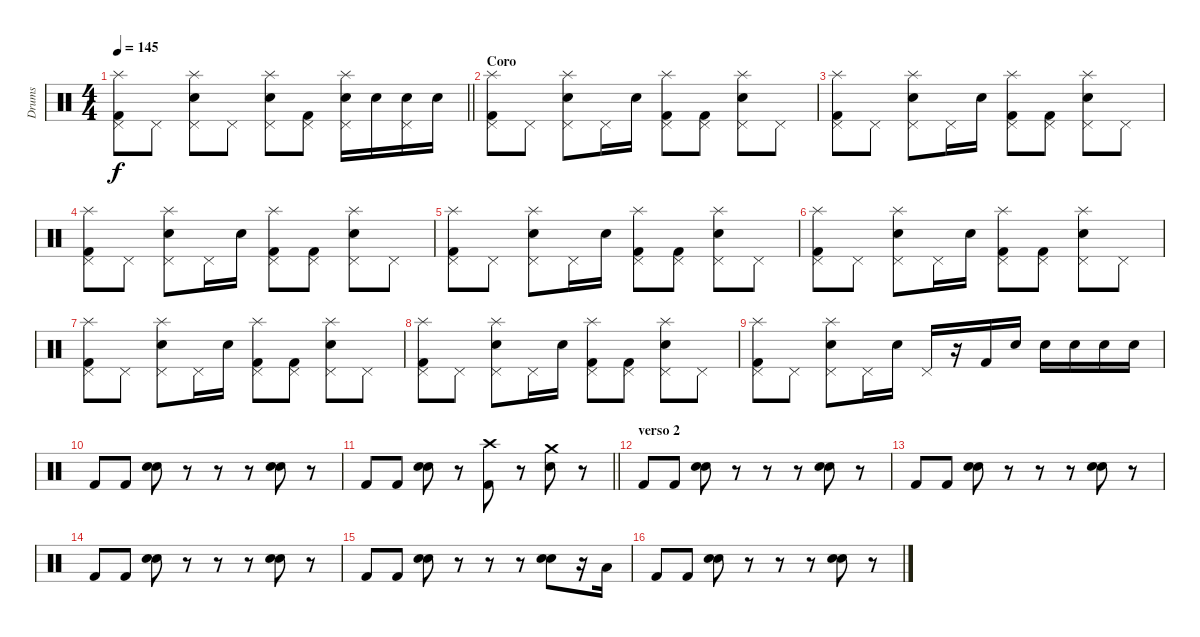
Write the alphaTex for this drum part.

\track ("Drums" "Drums") {instrument percussion}
\staff {score}
\articulation defaults
\ts (4 4)
\tempo 145
\clef neutral
\barLineRight lightlight
\ks c
("Splash (hit)" "Pedal Hi-Hat (hit)" "Kick (hit) 2").8{dy f} "Pedal Hi-Hat (hit)".8 ("Splash (hit)" "Pedal Hi-Hat (hit)" "Electric Snare (hit)").8 "Pedal Hi-Hat (hit)".8 ("Splash (hit)" "Pedal Hi-Hat (hit)" "Electric Snare (hit)").8 ("Pedal Hi-Hat (hit)" "Kick (hit) 2").8 ("Splash (hit)" "Pedal Hi-Hat (hit)" "Electric Snare (hit)").16 "Electric Snare (hit)".16 ("Pedal Hi-Hat (hit)" "Electric Snare (hit)").16 "Electric Snare (hit)".16 |
\section ("" "Coro")
("Pedal Hi-Hat (hit)" "Splash (hit)" "Kick (hit) 2").8 "Pedal Hi-Hat (hit)".8 ("Pedal Hi-Hat (hit)" "Splash (hit)" "Electric Snare (hit)").8 "Pedal Hi-Hat (hit)".16 "Electric Snare (hit)".16 ("Pedal Hi-Hat (hit)" "Splash (hit)" "Kick (hit) 2").8 ("Pedal Hi-Hat (hit)" "Kick (hit) 2").8 ("Pedal Hi-Hat (hit)" "Splash (hit)" "Electric Snare (hit)").8 "Pedal Hi-Hat (hit)".8 |
("Pedal Hi-Hat (hit)" "Splash (hit)" "Kick (hit) 2").8 "Pedal Hi-Hat (hit)".8 ("Pedal Hi-Hat (hit)" "Splash (hit)" "Electric Snare (hit)").8 "Pedal Hi-Hat (hit)".16 "Electric Snare (hit)".16 ("Pedal Hi-Hat (hit)" "Splash (hit)" "Kick (hit) 2").8 ("Pedal Hi-Hat (hit)" "Kick (hit) 2").8 ("Pedal Hi-Hat (hit)" "Splash (hit)" "Electric Snare (hit)").8 "Pedal Hi-Hat (hit)".8 |
("Pedal Hi-Hat (hit)" "Splash (hit)" "Kick (hit) 2").8 "Pedal Hi-Hat (hit)".8 ("Pedal Hi-Hat (hit)" "Splash (hit)" "Electric Snare (hit)").8 "Pedal Hi-Hat (hit)".16 "Electric Snare (hit)".16 ("Pedal Hi-Hat (hit)" "Splash (hit)" "Kick (hit) 2").8 ("Pedal Hi-Hat (hit)" "Kick (hit) 2").8 ("Pedal Hi-Hat (hit)" "Splash (hit)" "Electric Snare (hit)").8 "Pedal Hi-Hat (hit)".8 |
("Pedal Hi-Hat (hit)" "Splash (hit)" "Kick (hit) 2").8 "Pedal Hi-Hat (hit)".8 ("Pedal Hi-Hat (hit)" "Splash (hit)" "Electric Snare (hit)").8 "Pedal Hi-Hat (hit)".16 "Electric Snare (hit)".16 ("Pedal Hi-Hat (hit)" "Splash (hit)" "Kick (hit) 2").8 ("Pedal Hi-Hat (hit)" "Kick (hit) 2").8 ("Pedal Hi-Hat (hit)" "Splash (hit)" "Electric Snare (hit)").8 "Pedal Hi-Hat (hit)".8 |
("Pedal Hi-Hat (hit)" "Splash (hit)" "Kick (hit) 2").8 "Pedal Hi-Hat (hit)".8 ("Pedal Hi-Hat (hit)" "Splash (hit)" "Electric Snare (hit)").8 "Pedal Hi-Hat (hit)".16 "Electric Snare (hit)".16 ("Pedal Hi-Hat (hit)" "Splash (hit)" "Kick (hit) 2").8 ("Pedal Hi-Hat (hit)" "Kick (hit) 2").8 ("Pedal Hi-Hat (hit)" "Splash (hit)" "Electric Snare (hit)").8 "Pedal Hi-Hat (hit)".8 |
("Pedal Hi-Hat (hit)" "Splash (hit)" "Kick (hit) 2").8 "Pedal Hi-Hat (hit)".8 ("Pedal Hi-Hat (hit)" "Splash (hit)" "Electric Snare (hit)").8 "Pedal Hi-Hat (hit)".16 "Electric Snare (hit)".16 ("Pedal Hi-Hat (hit)" "Splash (hit)" "Kick (hit) 2").8 ("Pedal Hi-Hat (hit)" "Kick (hit) 2").8 ("Pedal Hi-Hat (hit)" "Splash (hit)" "Electric Snare (hit)").8 "Pedal Hi-Hat (hit)".8 |
("Pedal Hi-Hat (hit)" "Splash (hit)" "Kick (hit) 2").8 "Pedal Hi-Hat (hit)".8 ("Pedal Hi-Hat (hit)" "Splash (hit)" "Electric Snare (hit)").8 "Pedal Hi-Hat (hit)".16 "Electric Snare (hit)".16 ("Pedal Hi-Hat (hit)" "Splash (hit)" "Kick (hit) 2").8 ("Pedal Hi-Hat (hit)" "Kick (hit) 2").8 ("Pedal Hi-Hat (hit)" "Splash (hit)" "Electric Snare (hit)").8 "Pedal Hi-Hat (hit)".8 |
("Pedal Hi-Hat (hit)" "Splash (hit)" "Kick (hit) 2").8 "Pedal Hi-Hat (hit)".8 ("Pedal Hi-Hat (hit)" "Splash (hit)" "Electric Snare (hit)").8 "Pedal Hi-Hat (hit)".16 "Electric Snare (hit)".16 "Pedal Hi-Hat (hit)".16 r.16 "Kick (hit) 2".16 "Electric Snare (hit)".16 "Electric Snare (hit)".16 "Electric Snare (hit)".16 "Electric Snare (hit)".16 "Electric Snare (hit)".16 |
"Kick (hit) 2".8 "Kick (hit) 2".8 ("Electric Snare (hit)" "Electric Snare (hit)").8{bd 60} r.8 r.8 r.8 ("Electric Snare (hit)" "Electric Snare (hit)").8{bd 60} r.8 |
\barLineRight lightlight "Kick (hit) 2".8 "Kick (hit) 2".8
("Electric Snare (hit)" "Electric Snare (hit)").8{bd 60} r.8 ("Crash high (hit)" "Kick (hit) 2").8 r.8 ("Crash medium (hit)" "Electric Snare (hit)").8 r.8 |
\section ("" "verso 2")
"Kick (hit) 2".8 "Kick (hit) 2".8 ("Electric Snare (hit)" "Electric Snare (hit)").8{bd 60} r.8 r.8 r.8 ("Electric Snare (hit)" "Electric Snare (hit)").8{bd 60} r.8 |
"Kick (hit) 2".8 "Kick (hit) 2".8 ("Electric Snare (hit)" "Electric Snare (hit)").8{bd 60} r.8 r.8 r.8 ("Electric Snare (hit)" "Electric Snare (hit)").8{bd 60} r.8 |
"Kick (hit) 2".8 "Kick (hit) 2".8 ("Electric Snare (hit)" "Electric Snare (hit)").8{bd 60} r.8 r.8 r.8 ("Electric Snare (hit)" "Electric Snare (hit)").8{bd 60} r.8 |
"Kick (hit) 2".8 "Kick (hit) 2".8 ("Electric Snare (hit)" "Electric Snare (hit)").8{bd 60} r.8 r.8 r.8 ("Electric Snare (hit)" "Electric Snare (hit)").8{bd 60} r.16 "Low Tom (hit)".16 |
"Kick (hit) 2".8 "Kick (hit) 2".8 ("Electric Snare (hit)" "Electric Snare (hit)").8{bd 60} r.8 r.8 r.8 ("Electric Snare (hit)" "Electric Snare (hit)").8{bd 60} r.8
